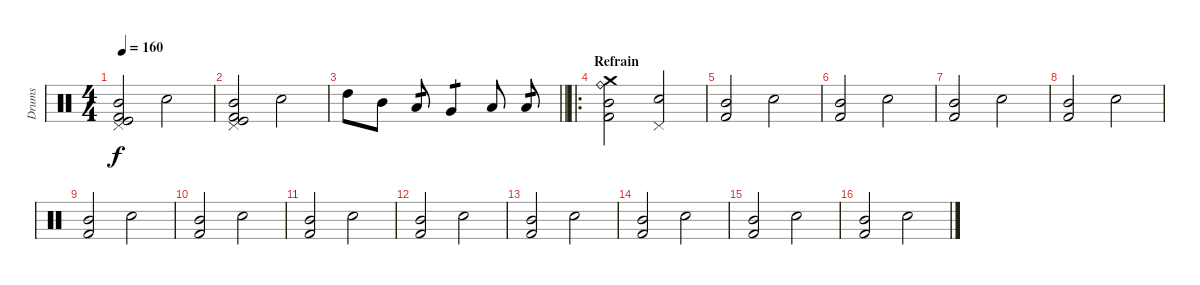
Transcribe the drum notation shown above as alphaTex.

\track ("Drums" "Drums") {instrument percussion}
\staff {score}
\articulation defaults
\ts (4 4)
\tempo 160
\clef neutral
\ks c
("Kick (hit)" "Kick (hit) 2" "Pedal Hi-Hat (hit)" "Mid Tom (hit)").2{dy f} "Electric Snare (hit)".2 |
("Kick (hit)" "Kick (hit) 2" "Pedal Hi-Hat (hit)" "Mid Tom (hit)").2 "Electric Snare (hit)".2 |
\barLineRight lightlight "High Tom (hit)".8 "Mid Tom (hit)".8 "Low Tom (hit)".8{tp 1} "Very Low Tom (hit)".4{tp 1} "Low Tom (hit)".8 "Low Floor Tom (hit)".8{tp 1}
|
\ro
\section ("" "Refrain")
("Crash medium (hit)" "Kick (hit) 2" "Ride (bell)" "Mid Tom (hit)").2 ("Electric Snare (hit)" "Pedal Hi-Hat (hit)").2 |
("Kick (hit) 2" "Mid Tom (hit)").2 "Electric Snare (hit)".2 |
("Kick (hit) 2" "Mid Tom (hit)").2 "Electric Snare (hit)".2 |
("Kick (hit) 2" "Mid Tom (hit)").2 "Electric Snare (hit)".2 |
("Kick (hit) 2" "Mid Tom (hit)").2 "Electric Snare (hit)".2 |
("Kick (hit) 2" "Mid Tom (hit)").2 "Electric Snare (hit)".2 |
("Kick (hit) 2" "Mid Tom (hit)").2 "Electric Snare (hit)".2 |
("Kick (hit) 2" "Mid Tom (hit)").2 "Electric Snare (hit)".2 |
("Kick (hit) 2" "Mid Tom (hit)").2 "Electric Snare (hit)".2 |
("Kick (hit) 2" "Mid Tom (hit)").2 "Electric Snare (hit)".2 |
("Kick (hit) 2" "Mid Tom (hit)").2 "Electric Snare (hit)".2 |
("Kick (hit) 2" "Mid Tom (hit)").2 "Electric Snare (hit)".2 |
("Kick (hit) 2" "Mid Tom (hit)").2 "Electric Snare (hit)".2
